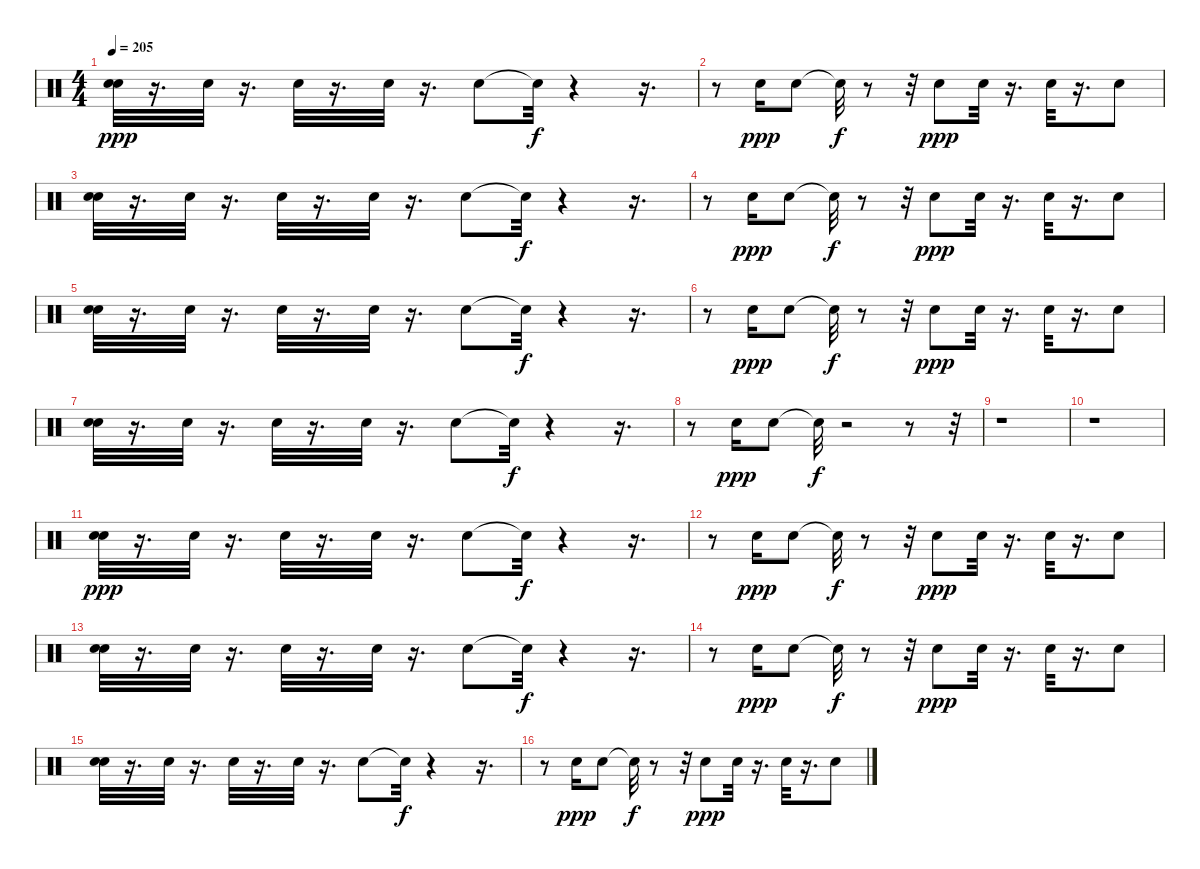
\track "" {instrument percussion}
\staff {score}
\articulation defaults
\ts (4 4)
\tempo 205
\clef neutral
\ks c
("Electric Snare (hit)" "Electric Snare (hit)").32{dy ppp} r.16{d} "Electric Snare (hit)".32 r.16{d} "Electric Snare (hit)".32 r.16{d} "Electric Snare (hit)".32 r.16{d} "Electric Snare (hit)".8 "Snare (hit)"{t}.32{dy f} r.4 r.16{d} |
r.8 "Electric Snare (hit)".16{dy ppp} "Electric Snare (hit)".8 "Snare (hit)"{t}.32{dy f} r.8 r.32 "Electric Snare (hit)".8{dy ppp} "Electric Snare (hit)".32 r.16{d} "Electric Snare (hit)".32 r.16{d} "Electric Snare (hit)".8 |
("Electric Snare (hit)" "Electric Snare (hit)").32 r.16{d} "Electric Snare (hit)".32 r.16{d} "Electric Snare (hit)".32 r.16{d} "Electric Snare (hit)".32 r.16{d} "Electric Snare (hit)".8 "Snare (hit)"{t}.32{dy f} r.4 r.16{d} |
r.8 "Electric Snare (hit)".16{dy ppp} "Electric Snare (hit)".8 "Snare (hit)"{t}.32{dy f} r.8 r.32 "Electric Snare (hit)".8{dy ppp} "Electric Snare (hit)".32 r.16{d} "Electric Snare (hit)".32 r.16{d} "Electric Snare (hit)".8 |
("Electric Snare (hit)" "Electric Snare (hit)").32 r.16{d} "Electric Snare (hit)".32 r.16{d} "Electric Snare (hit)".32 r.16{d} "Electric Snare (hit)".32 r.16{d} "Electric Snare (hit)".8 "Snare (hit)"{t}.32{dy f} r.4 r.16{d} |
r.8 "Electric Snare (hit)".16{dy ppp} "Electric Snare (hit)".8 "Snare (hit)"{t}.32{dy f} r.8 r.32 "Electric Snare (hit)".8{dy ppp} "Electric Snare (hit)".32 r.16{d} "Electric Snare (hit)".32 r.16{d} "Electric Snare (hit)".8 |
("Electric Snare (hit)" "Electric Snare (hit)").32 r.16{d} "Electric Snare (hit)".32 r.16{d} "Electric Snare (hit)".32 r.16{d} "Electric Snare (hit)".32 r.16{d} "Electric Snare (hit)".8 "Snare (hit)"{t}.32{dy f} r.4 r.16{d} |
r.8 "Electric Snare (hit)".16{dy ppp} "Electric Snare (hit)".8 "Snare (hit)"{t}.32{dy f} r.2 r.8 r.32 |
r.1 |
r.1 |
("Electric Snare (hit)" "Electric Snare (hit)").32{dy ppp} r.16{d} "Electric Snare (hit)".32 r.16{d} "Electric Snare (hit)".32 r.16{d} "Electric Snare (hit)".32 r.16{d} "Electric Snare (hit)".8 "Snare (hit)"{t}.32{dy f} r.4 r.16{d} |
r.8 "Electric Snare (hit)".16{dy ppp} "Electric Snare (hit)".8 "Snare (hit)"{t}.32{dy f} r.8 r.32 "Electric Snare (hit)".8{dy ppp} "Electric Snare (hit)".32 r.16{d} "Electric Snare (hit)".32 r.16{d} "Electric Snare (hit)".8 |
("Electric Snare (hit)" "Electric Snare (hit)").32 r.16{d} "Electric Snare (hit)".32 r.16{d} "Electric Snare (hit)".32 r.16{d} "Electric Snare (hit)".32 r.16{d} "Electric Snare (hit)".8 "Snare (hit)"{t}.32{dy f} r.4 r.16{d} |
r.8 "Electric Snare (hit)".16{dy ppp} "Electric Snare (hit)".8 "Snare (hit)"{t}.32{dy f} r.8 r.32 "Electric Snare (hit)".8{dy ppp} "Electric Snare (hit)".32 r.16{d} "Electric Snare (hit)".32 r.16{d} "Electric Snare (hit)".8 |
("Electric Snare (hit)" "Electric Snare (hit)").32 r.16{d} "Electric Snare (hit)".32 r.16{d} "Electric Snare (hit)".32 r.16{d} "Electric Snare (hit)".32 r.16{d} "Electric Snare (hit)".8 "Snare (hit)"{t}.32{dy f} r.4 r.16{d} |
r.8 "Electric Snare (hit)".16{dy ppp} "Electric Snare (hit)".8 "Snare (hit)"{t}.32{dy f} r.8 r.32 "Electric Snare (hit)".8{dy ppp} "Electric Snare (hit)".32 r.16{d} "Electric Snare (hit)".32 r.16{d} "Electric Snare (hit)".8
